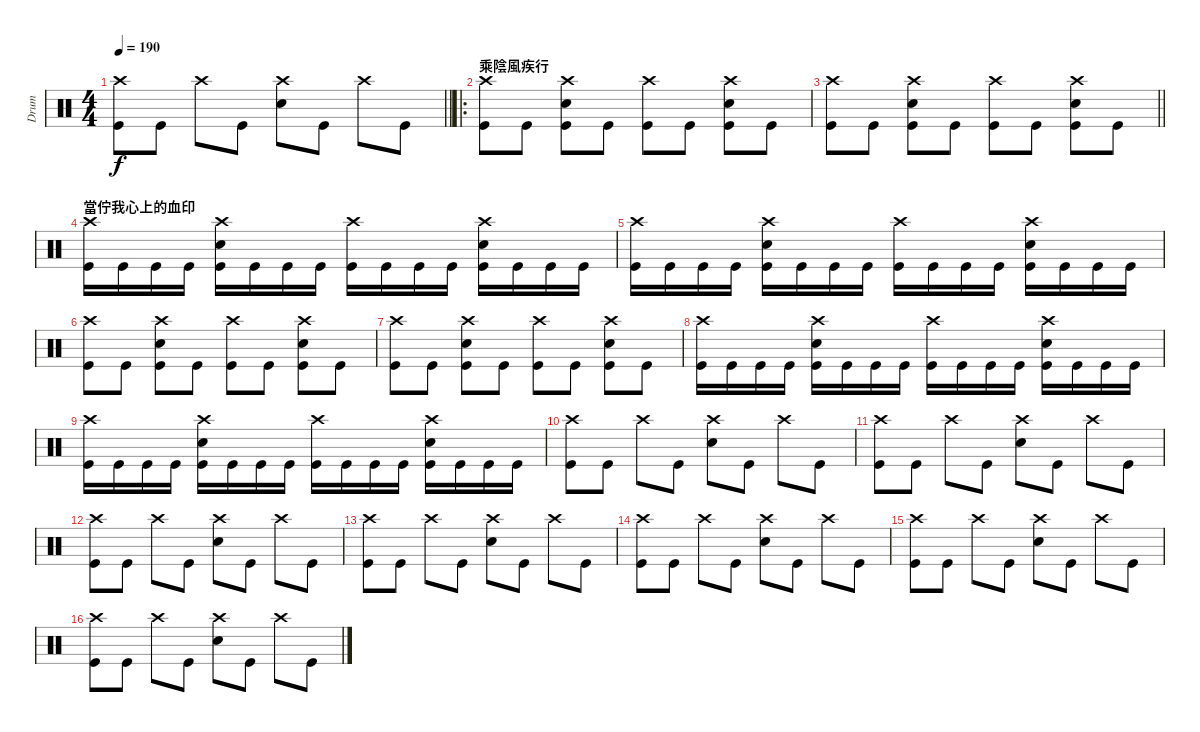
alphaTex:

\track ("Drum" "Drum") {instrument percussion}
\staff {score}
\articulation defaults
\ts (4 4)
\tempo 190
\clef neutral
\barLineRight lightlight
\ks c
("Crash high (hit)" "Kick (hit)").8{dy f} "Kick (hit)".8 "Crash high (hit)".8 "Kick (hit)".8 ("Snare (hit) 2" "Crash high (hit)").8 "Kick (hit)".8 "Crash high (hit)".8 "Kick (hit)".8 |
\ro
\section ("" "乘陰風疾行")
("Crash high (hit)" "Kick (hit)").8 "Kick (hit)".8 ("Crash high (hit)" "Kick (hit)" "Snare (hit) 2").8 "Kick (hit)".8 ("Crash high (hit)" "Kick (hit)").8 "Kick (hit)".8 ("Snare (hit) 2" "Kick (hit)" "Crash high (hit)").8 "Kick (hit)".8 |
\barLineRight lightlight
("Crash high (hit)" "Kick (hit)").8 "Kick (hit)".8 ("Crash high (hit)" "Kick (hit)" "Snare (hit) 2").8 "Kick (hit)".8 ("Crash high (hit)" "Kick (hit)").8 "Kick (hit)".8 ("Snare (hit) 2" "Kick (hit)" "Crash high (hit)").8 "Kick (hit)".8 |
\section ("" "當佇我心上的血印")
("Crash high (hit)" "Kick (hit)").16 "Kick (hit)".16 "Kick (hit)".16 "Kick (hit)".16 ("Snare (hit) 2" "Crash high (hit)" "Kick (hit)").16 "Kick (hit)".16 "Kick (hit)".16 "Kick (hit)".16 ("Crash high (hit)" "Kick (hit)").16 "Kick (hit)".16 "Kick (hit)".16 "Kick (hit)".16 ("Snare (hit) 2" "Crash high (hit)" "Kick (hit)").16 "Kick (hit)".16 "Kick (hit)".16 "Kick (hit)".16 |
("Crash high (hit)" "Kick (hit)").16 "Kick (hit)".16 "Kick (hit)".16 "Kick (hit)".16 ("Snare (hit) 2" "Crash high (hit)" "Kick (hit)").16 "Kick (hit)".16 "Kick (hit)".16 "Kick (hit)".16 ("Crash high (hit)" "Kick (hit)").16 "Kick (hit)".16 "Kick (hit)".16 "Kick (hit)".16 ("Snare (hit) 2" "Crash high (hit)" "Kick (hit)").16 "Kick (hit)".16 "Kick (hit)".16 "Kick (hit)".16 |
("Crash high (hit)" "Kick (hit)").8 "Kick (hit)".8 ("Crash high (hit)" "Kick (hit)" "Snare (hit) 2").8 "Kick (hit)".8 ("Crash high (hit)" "Kick (hit)").8 "Kick (hit)".8 ("Snare (hit) 2" "Kick (hit)" "Crash high (hit)").8 "Kick (hit)".8 |
("Crash high (hit)" "Kick (hit)").8 "Kick (hit)".8 ("Crash high (hit)" "Kick (hit)" "Snare (hit) 2").8 "Kick (hit)".8 ("Crash high (hit)" "Kick (hit)").8 "Kick (hit)".8 ("Snare (hit) 2" "Kick (hit)" "Crash high (hit)").8 "Kick (hit)".8 |
("Crash high (hit)" "Kick (hit)").16 "Kick (hit)".16 "Kick (hit)".16 "Kick (hit)".16 ("Snare (hit) 2" "Crash high (hit)" "Kick (hit)").16 "Kick (hit)".16 "Kick (hit)".16 "Kick (hit)".16 ("Crash high (hit)" "Kick (hit)").16 "Kick (hit)".16 "Kick (hit)".16 "Kick (hit)".16 ("Snare (hit) 2" "Crash high (hit)" "Kick (hit)").16 "Kick (hit)".16 "Kick (hit)".16 "Kick (hit)".16 |
("Crash high (hit)" "Kick (hit)").16 "Kick (hit)".16 "Kick (hit)".16 "Kick (hit)".16 ("Snare (hit) 2" "Crash high (hit)" "Kick (hit)").16 "Kick (hit)".16 "Kick (hit)".16 "Kick (hit)".16 ("Crash high (hit)" "Kick (hit)").16 "Kick (hit)".16 "Kick (hit)".16 "Kick (hit)".16 ("Snare (hit) 2" "Crash high (hit)" "Kick (hit)").16 "Kick (hit)".16 "Kick (hit)".16 "Kick (hit)".16 |
("Crash high (hit)" "Kick (hit)").8 "Kick (hit)".8 "Crash high (hit)".8 "Kick (hit)".8 ("Snare (hit) 2" "Crash high (hit)").8 "Kick (hit)".8 "Crash high (hit)".8 "Kick (hit)".8 |
("Crash high (hit)" "Kick (hit)").8 "Kick (hit)".8 "Crash high (hit)".8 "Kick (hit)".8 ("Snare (hit) 2" "Crash high (hit)").8 "Kick (hit)".8 "Crash high (hit)".8 "Kick (hit)".8 |
("Crash high (hit)" "Kick (hit)").8 "Kick (hit)".8 "Crash high (hit)".8 "Kick (hit)".8 ("Snare (hit) 2" "Crash high (hit)").8 "Kick (hit)".8 "Crash high (hit)".8 "Kick (hit)".8 |
("Crash high (hit)" "Kick (hit)").8 "Kick (hit)".8 "Crash high (hit)".8 "Kick (hit)".8 ("Snare (hit) 2" "Crash high (hit)").8 "Kick (hit)".8 "Crash high (hit)".8 "Kick (hit)".8 |
("Crash high (hit)" "Kick (hit)").8 "Kick (hit)".8 "Crash high (hit)".8 "Kick (hit)".8 ("Snare (hit) 2" "Crash high (hit)").8 "Kick (hit)".8 "Crash high (hit)".8 "Kick (hit)".8 |
("Crash high (hit)" "Kick (hit)").8 "Kick (hit)".8 "Crash high (hit)".8 "Kick (hit)".8 ("Snare (hit) 2" "Crash high (hit)").8 "Kick (hit)".8 "Crash high (hit)".8 "Kick (hit)".8 |
("Crash high (hit)" "Kick (hit)").8 "Kick (hit)".8 "Crash high (hit)".8 "Kick (hit)".8 ("Snare (hit) 2" "Crash high (hit)").8 "Kick (hit)".8 "Crash high (hit)".8 "Kick (hit)".8
